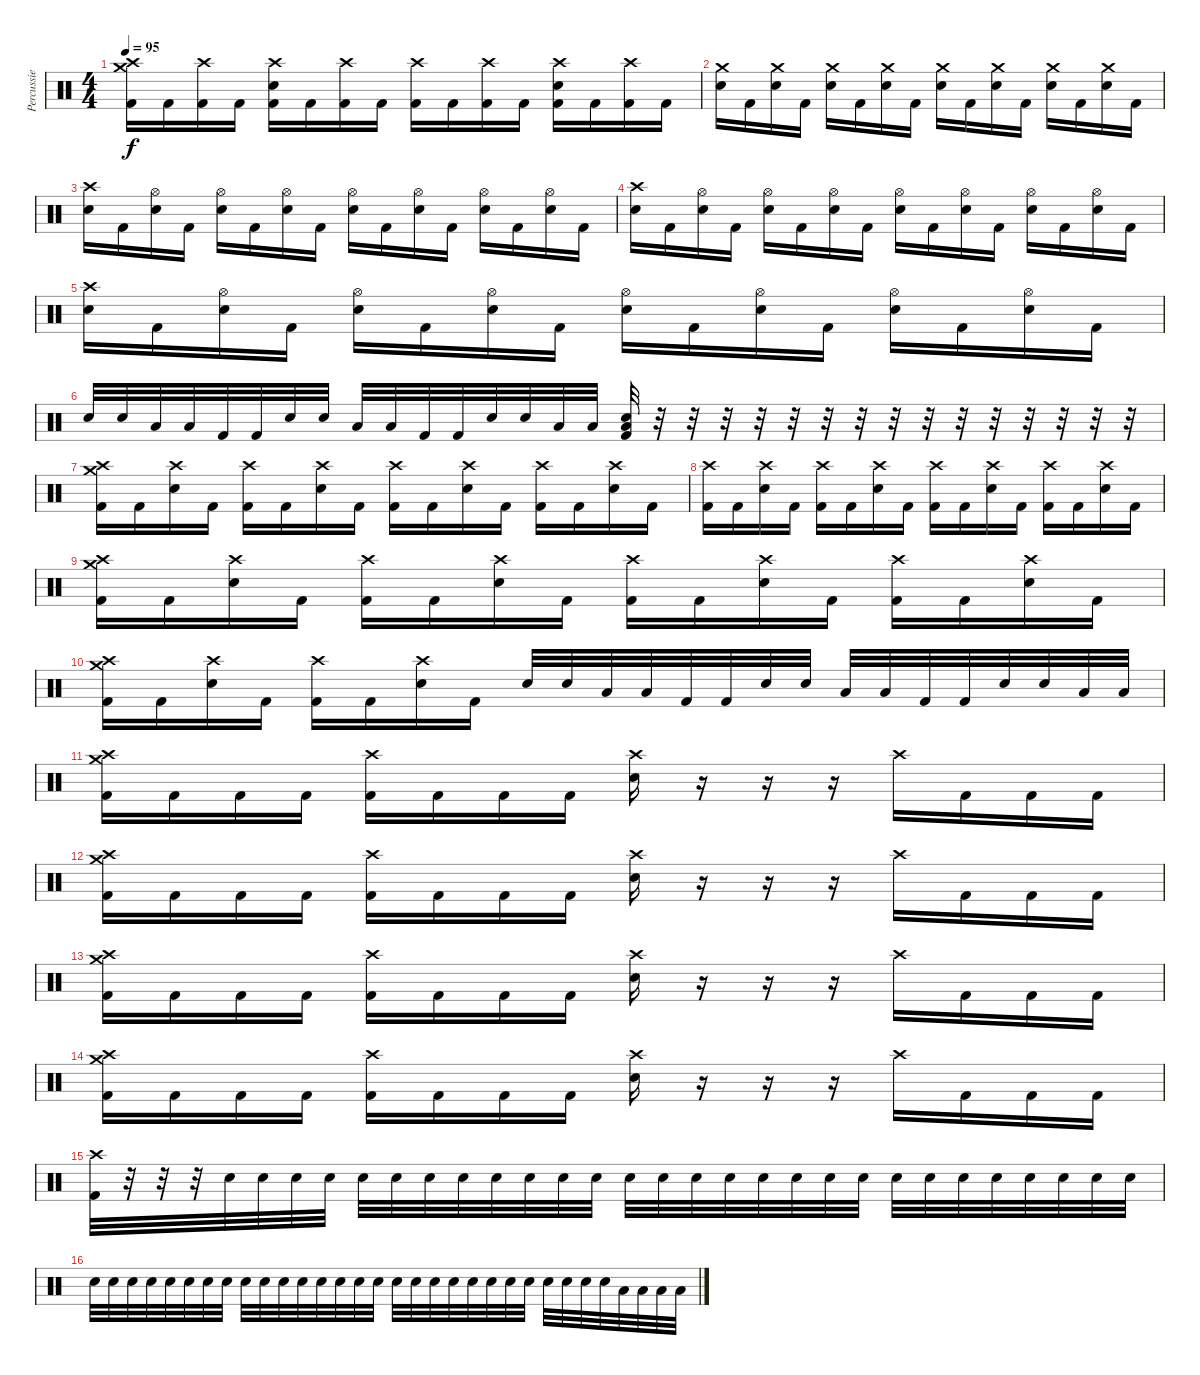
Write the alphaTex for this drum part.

\track ("Percussie" "Percussie") {instrument percussion}
\staff {score}
\articulation defaults
\ts (4 4)
\tempo 95
\clef neutral
\ks c
("Crash medium (hit)" "Crash high (hit)" "Kick (hit) 2").16{dy f} "Kick (hit) 2".16 ("Crash high (hit)" "Kick (hit) 2").16 "Kick (hit) 2".16 ("Crash high (hit)" "Electric Snare (hit)" "Kick (hit) 2").16 "Kick (hit) 2".16 ("Crash high (hit)" "Kick (hit) 2").16 "Kick (hit) 2".16 ("Crash high (hit)" "Kick (hit) 2").16 "Kick (hit) 2".16 ("Crash high (hit)" "Kick (hit) 2").16 "Kick (hit) 2".16 ("Crash high (hit)" "Electric Snare (hit)" "Kick (hit) 2").16 "Kick (hit) 2".16 ("Crash high (hit)" "Kick (hit) 2").16 "Kick (hit) 2".16 |
("Crash medium (hit)" "Electric Snare (hit)").16 "Kick (hit) 2".16 ("Crash medium (hit)" "Electric Snare (hit)").16 "Kick (hit) 2".16 ("Crash medium (hit)" "Electric Snare (hit)").16 "Kick (hit) 2".16 ("Crash medium (hit)" "Electric Snare (hit)").16 "Kick (hit) 2".16 ("Crash medium (hit)" "Electric Snare (hit)").16 "Kick (hit) 2".16 ("Crash medium (hit)" "Electric Snare (hit)").16 "Kick (hit) 2".16 ("Crash medium (hit)" "Electric Snare (hit)").16 "Kick (hit) 2".16 ("Crash medium (hit)" "Electric Snare (hit)").16 "Kick (hit) 2".16 |
("Crash high (hit)" "Electric Snare (hit)").16 "Kick (hit) 2".16 ("Hi-Hat (open)" "Electric Snare (hit)").16 "Kick (hit) 2".16 ("Hi-Hat (open)" "Electric Snare (hit)").16 "Kick (hit) 2".16 ("Hi-Hat (open)" "Electric Snare (hit)").16 "Kick (hit) 2".16 ("Hi-Hat (open)" "Electric Snare (hit)").16 "Kick (hit) 2".16 ("Hi-Hat (open)" "Electric Snare (hit)").16 "Kick (hit) 2".16 ("Hi-Hat (open)" "Electric Snare (hit)").16 "Kick (hit) 2".16 ("Hi-Hat (open)" "Electric Snare (hit)").16 "Kick (hit) 2".16 |
("Crash high (hit)" "Electric Snare (hit)").16 "Kick (hit) 2".16 ("Hi-Hat (open)" "Electric Snare (hit)").16 "Kick (hit) 2".16 ("Hi-Hat (open)" "Electric Snare (hit)").16 "Kick (hit) 2".16 ("Hi-Hat (open)" "Electric Snare (hit)").16 "Kick (hit) 2".16 ("Hi-Hat (open)" "Electric Snare (hit)").16 "Kick (hit) 2".16 ("Hi-Hat (open)" "Electric Snare (hit)").16 "Kick (hit) 2".16 ("Hi-Hat (open)" "Electric Snare (hit)").16 "Kick (hit) 2".16 ("Hi-Hat (open)" "Electric Snare (hit)").16 "Kick (hit) 2".16 |
("Crash high (hit)" "Electric Snare (hit)").16 "Kick (hit) 2".16 ("Hi-Hat (open)" "Electric Snare (hit)").16 "Kick (hit) 2".16 ("Hi-Hat (open)" "Electric Snare (hit)").16 "Kick (hit) 2".16 ("Hi-Hat (open)" "Electric Snare (hit)").16 "Kick (hit) 2".16 ("Hi-Hat (open)" "Electric Snare (hit)").16 "Kick (hit) 2".16 ("Hi-Hat (open)" "Electric Snare (hit)").16 "Kick (hit) 2".16 ("Hi-Hat (open)" "Electric Snare (hit)").16 "Kick (hit) 2".16 ("Hi-Hat (open)" "Electric Snare (hit)").16 "Kick (hit) 2".16 |
"Electric Snare (hit)".32 "Electric Snare (hit)".32 "Low Tom (hit)".32 "Low Tom (hit)".32 "Kick (hit) 2".32 "Kick (hit) 2".32 "Electric Snare (hit)".32 "Electric Snare (hit)".32 "Low Tom (hit)".32 "Low Tom (hit)".32 "Kick (hit) 2".32 "Kick (hit) 2".32 "Electric Snare (hit)".32 "Electric Snare (hit)".32 "Low Tom (hit)".32 "Low Tom (hit)".32 ("Low Floor Tom (hit)" "Electric Snare (hit)" "Kick (hit) 2").32 r.32 r.32 r.32 r.32 r.32 r.32 r.32 r.32 r.32 r.32 r.32 r.32 r.32 r.32 r.32 |
("Crash medium (hit)" "Crash high (hit)" "Kick (hit) 2").16 "Kick (hit) 2".16 ("Crash high (hit)" "Electric Snare (hit)").16 "Kick (hit) 2".16 ("Crash high (hit)" "Kick (hit) 2").16 "Kick (hit) 2".16 ("Crash high (hit)" "Electric Snare (hit)").16 "Kick (hit) 2".16 ("Crash high (hit)" "Kick (hit) 2").16 "Kick (hit) 2".16 ("Crash high (hit)" "Electric Snare (hit)").16 "Kick (hit) 2".16 ("Crash high (hit)" "Kick (hit) 2").16 "Kick (hit) 2".16 ("Crash high (hit)" "Electric Snare (hit)").16 "Kick (hit) 2".16 |
("Crash high (hit)" "Kick (hit) 2").16 "Kick (hit) 2".16 ("Crash high (hit)" "Electric Snare (hit)").16 "Kick (hit) 2".16 ("Crash high (hit)" "Kick (hit) 2").16 "Kick (hit) 2".16 ("Crash high (hit)" "Electric Snare (hit)").16 "Kick (hit) 2".16 ("Crash high (hit)" "Kick (hit) 2").16 "Kick (hit) 2".16 ("Crash high (hit)" "Electric Snare (hit)").16 "Kick (hit) 2".16 ("Crash high (hit)" "Kick (hit) 2").16 "Kick (hit) 2".16 ("Crash high (hit)" "Electric Snare (hit)").16 "Kick (hit) 2".16 |
("Crash medium (hit)" "Crash high (hit)" "Kick (hit) 2").16 "Kick (hit) 2".16 ("Crash high (hit)" "Electric Snare (hit)").16 "Kick (hit) 2".16 ("Crash high (hit)" "Kick (hit) 2").16 "Kick (hit) 2".16 ("Crash high (hit)" "Electric Snare (hit)").16 "Kick (hit) 2".16 ("Crash high (hit)" "Kick (hit) 2").16 "Kick (hit) 2".16 ("Crash high (hit)" "Electric Snare (hit)").16 "Kick (hit) 2".16 ("Crash high (hit)" "Kick (hit) 2").16 "Kick (hit) 2".16 ("Crash high (hit)" "Electric Snare (hit)").16 "Kick (hit) 2".16 |
("Crash medium (hit)" "Crash high (hit)" "Kick (hit) 2").16 "Kick (hit) 2".16 ("Crash high (hit)" "Electric Snare (hit)").16 "Kick (hit) 2".16 ("Crash high (hit)" "Kick (hit) 2").16 "Kick (hit) 2".16 ("Crash high (hit)" "Electric Snare (hit)").16 "Kick (hit) 2".16 "Electric Snare (hit)".32 "Electric Snare (hit)".32 "Low Tom (hit)".32 "Low Tom (hit)".32 "Kick (hit) 2".32 "Kick (hit) 2".32 "Electric Snare (hit)".32 "Electric Snare (hit)".32 "Low Tom (hit)".32 "Low Tom (hit)".32 "Kick (hit) 2".32 "Kick (hit) 2".32 "Electric Snare (hit)".32 "Electric Snare (hit)".32 "Low Tom (hit)".32 "Low Tom (hit)".32 |
("Crash medium (hit)" "Crash high (hit)" "Kick (hit) 2").16 "Kick (hit) 2".16 "Kick (hit) 2".16 "Kick (hit) 2".16 ("Crash high (hit)" "Kick (hit) 2").16 "Kick (hit) 2".16 "Kick (hit) 2".16 "Kick (hit) 2".16 ("Crash high (hit)" "Electric Snare (hit)").16 r.16 r.16 r.16 "Crash high (hit)".16 "Kick (hit) 2".16 "Kick (hit) 2".16 "Kick (hit) 2".16 |
("Crash medium (hit)" "Crash high (hit)" "Kick (hit) 2").16 "Kick (hit) 2".16 "Kick (hit) 2".16 "Kick (hit) 2".16 ("Crash high (hit)" "Kick (hit) 2").16 "Kick (hit) 2".16 "Kick (hit) 2".16 "Kick (hit) 2".16 ("Crash high (hit)" "Electric Snare (hit)").16 r.16 r.16 r.16 "Crash high (hit)".16 "Kick (hit) 2".16 "Kick (hit) 2".16 "Kick (hit) 2".16 |
("Crash medium (hit)" "Crash high (hit)" "Kick (hit) 2").16 "Kick (hit) 2".16 "Kick (hit) 2".16 "Kick (hit) 2".16 ("Crash high (hit)" "Kick (hit) 2").16 "Kick (hit) 2".16 "Kick (hit) 2".16 "Kick (hit) 2".16 ("Crash high (hit)" "Electric Snare (hit)").16 r.16 r.16 r.16 "Crash high (hit)".16 "Kick (hit) 2".16 "Kick (hit) 2".16 "Kick (hit) 2".16 |
("Crash medium (hit)" "Crash high (hit)" "Kick (hit) 2").16 "Kick (hit) 2".16 "Kick (hit) 2".16 "Kick (hit) 2".16 ("Crash high (hit)" "Kick (hit) 2").16 "Kick (hit) 2".16 "Kick (hit) 2".16 "Kick (hit) 2".16 ("Crash high (hit)" "Electric Snare (hit)").16 r.16 r.16 r.16 "Crash high (hit)".16 "Kick (hit) 2".16 "Kick (hit) 2".16 "Kick (hit) 2".16 |
("Crash high (hit)" "Kick (hit) 2").32 r.32 r.32 r.32 "Electric Snare (hit)".32{volume 5} "Electric Snare (hit)".32 "Electric Snare (hit)".32 "Electric Snare (hit)".32 "Electric Snare (hit)".32 "Electric Snare (hit)".32 "Electric Snare (hit)".32 "Electric Snare (hit)".32{volume 7} "Electric Snare (hit)".32 "Electric Snare (hit)".32 "Electric Snare (hit)".32 "Electric Snare (hit)".32 "Electric Snare (hit)".32{volume 8} "Electric Snare (hit)".32 "Electric Snare (hit)".32 "Electric Snare (hit)".32 "Electric Snare (hit)".32 "Electric Snare (hit)".32 "Electric Snare (hit)".32 "Electric Snare (hit)".32 "Electric Snare (hit)".32{volume 10} "Electric Snare (hit)".32 "Electric Snare (hit)".32 "Electric Snare (hit)".32 "Electric Snare (hit)".32 "Electric Snare (hit)".32 "Electric Snare (hit)".32 "Electric Snare (hit)".32 |
"Electric Snare (hit)".32{volume 11} "Electric Snare (hit)".32 "Electric Snare (hit)".32 "Electric Snare (hit)".32 "Electric Snare (hit)".32 "Electric Snare (hit)".32 "Electric Snare (hit)".32 "Electric Snare (hit)".32 "Electric Snare (hit)".32{volume 12} "Electric Snare (hit)".32 "Electric Snare (hit)".32 "Electric Snare (hit)".32 "Electric Snare (hit)".32 "Electric Snare (hit)".32 "Electric Snare (hit)".32 "Electric Snare (hit)".32 "Electric Snare (hit)".32 "Electric Snare (hit)".32 "Electric Snare (hit)".32 "Electric Snare (hit)".32 "Electric Snare (hit)".32 "Electric Snare (hit)".32 "Electric Snare (hit)".32 "Electric Snare (hit)".32 "Electric Snare (hit)".32 "Electric Snare (hit)".32 "Electric Snare (hit)".32 "Electric Snare (hit)".32 "Low Tom (hit)".32 "Low Tom (hit)".32 "Low Tom (hit)".32 "Low Tom (hit)".32
